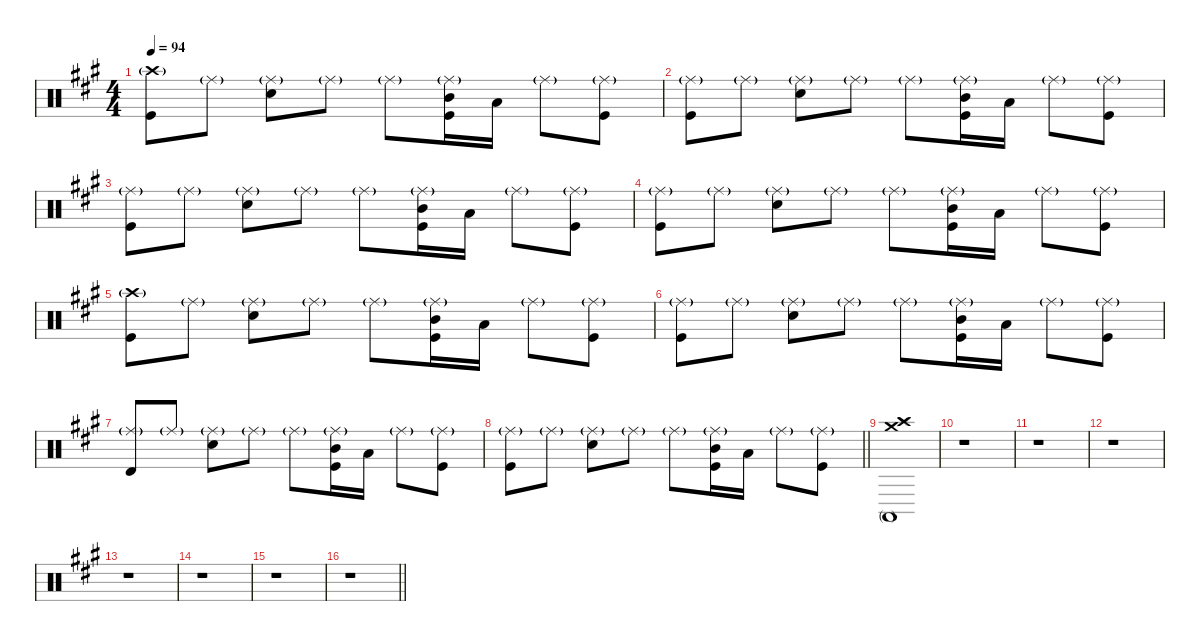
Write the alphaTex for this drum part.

\defaultSystemsLayout 4
\hideDynamics
\bracketExtendMode nobrackets
\singleTrackTrackNamePolicy hidden
\multiTrackTrackNamePolicy hidden
\firstSystemTrackNameMode fullname
\firstSystemTrackNameOrientation horizontal
\otherSystemsTrackNameOrientation horizontal
\track ("Percussion" "drm.") {defaultSystemsLayout 4 instrument percussion}
\staff {score}
\articulation defaults
\ts (4 4)
\tempo 94
\clef neutral
\ks a
("Crash high (hit)"{g acc forcenatural} "Kick (hit)"{acc forcenatural}).8{dy f beam Down} "Ride (middle)"{g acc forcenatural}.8{dy mf beam Down} ("Ride (middle)"{g acc forcenatural} "Snare (hit) 2"{acc forcenatural}).8{dy f beam Down} "Ride (middle)"{g acc forcenatural}.8{dy mf beam Down} "Ride (middle)"{g acc forcenatural}.8{beam Down} ("Ride (middle)"{g acc forcenatural} "Mid Tom (hit)"{acc forcenatural} "Kick (hit)"{acc forcenatural}).16{dy mp beam Down} "Low Tom (hit)"{acc forcenatural}.16{beam Down} "Ride (middle)"{g acc forcenatural}.8{dy mf beam Down} ("Ride (middle)"{g acc forcenatural} "Kick (hit)"{acc forcenatural}).8{dy f beam Down} |
("Ride (middle)"{g acc forcenatural} "Kick (hit)"{acc forcenatural}).8{beam Down} "Ride (middle)"{g acc forcenatural}.8{dy mf beam Down} ("Ride (middle)"{g acc forcenatural} "Snare (hit) 2"{acc forcenatural}).8{dy f beam Down} "Ride (middle)"{g acc forcenatural}.8{dy mf beam Down} "Ride (middle)"{g acc forcenatural}.8{beam Down} ("Ride (middle)"{g acc forcenatural} "Mid Tom (hit)"{acc forcenatural} "Kick (hit)"{acc forcenatural}).16{dy mp beam Down} "Low Tom (hit)"{acc forcenatural}.16{beam Down} "Ride (middle)"{g acc forcenatural}.8{dy mf beam Down} ("Ride (middle)"{g acc forcenatural} "Kick (hit)"{acc forcenatural}).8{dy f beam Down} |
("Ride (middle)"{g acc forcenatural} "Kick (hit)"{acc forcenatural}).8{beam Down} "Ride (middle)"{g acc forcenatural}.8{dy mf beam Down} ("Ride (middle)"{g acc forcenatural} "Snare (hit) 2"{acc forcenatural}).8{dy f beam Down} "Ride (middle)"{g acc forcenatural}.8{dy mf beam Down} "Ride (middle)"{g acc forcenatural}.8{beam Down} ("Ride (middle)"{g acc forcenatural} "Mid Tom (hit)"{acc forcenatural} "Kick (hit)"{acc forcenatural}).16{dy mp beam Down} "Low Tom (hit)"{acc forcenatural}.16{beam Down} "Ride (middle)"{g acc forcenatural}.8{dy mf beam Down} ("Ride (middle)"{g acc forcenatural} "Kick (hit)"{acc forcenatural}).8{dy f beam Down} |
("Ride (middle)"{g acc forcenatural} "Kick (hit)"{acc forcenatural}).8{beam Down} "Ride (middle)"{g acc forcenatural}.8{dy mf beam Down} ("Ride (middle)"{g acc forcenatural} "Snare (hit) 2"{acc forcenatural}).8{dy f beam Down} "Ride (middle)"{g acc forcenatural}.8{dy mf beam Down} "Ride (middle)"{g acc forcenatural}.8{beam Down} ("Ride (middle)"{g acc forcenatural} "Mid Tom (hit)"{acc forcenatural} "Kick (hit)"{acc forcenatural}).16{dy mp beam Down} "Low Tom (hit)"{acc forcenatural}.16{beam Down} "Ride (middle)"{g acc forcenatural}.8{dy mf beam Down} ("Ride (middle)"{g acc forcenatural} "Kick (hit)"{acc forcenatural}).8{dy f beam Down} |
("Crash high (hit)"{g acc forcenatural} "Kick (hit)"{acc forcenatural}).8{beam Down} "Ride (middle)"{g acc forcenatural}.8{dy mf beam Down} ("Ride (middle)"{g acc forcenatural} "Snare (hit) 2"{acc forcenatural}).8{dy f beam Down} "Ride (middle)"{g acc forcenatural}.8{dy mf beam Down} "Ride (middle)"{g acc forcenatural}.8{beam Down} ("Ride (middle)"{g acc forcenatural} "Mid Tom (hit)"{acc forcenatural} "Kick (hit)"{acc forcenatural}).16{dy mp beam Down} "Low Tom (hit)"{acc forcenatural}.16{beam Down} "Ride (middle)"{g acc forcenatural}.8{dy mf beam Down} ("Ride (middle)"{g acc forcenatural} "Kick (hit)"{acc forcenatural}).8{dy f beam Down} |
("Ride (middle)"{g acc forcenatural} "Kick (hit)"{acc forcenatural}).8{beam Down} "Ride (middle)"{g acc forcenatural}.8{dy mf beam Down} ("Ride (middle)"{g acc forcenatural} "Snare (hit) 2"{acc forcenatural}).8{dy f beam Down} "Ride (middle)"{g acc forcenatural}.8{dy mf beam Down} "Ride (middle)"{g acc forcenatural}.8{beam Down} ("Ride (middle)"{g acc forcenatural} "Mid Tom (hit)"{acc forcenatural} "Kick (hit)"{acc forcenatural}).16{dy mp beam Down} "Low Tom (hit)"{acc forcenatural}.16{beam Down} "Ride (middle)"{g acc forcenatural}.8{dy mf beam Down} ("Ride (middle)"{g acc forcenatural} "Kick (hit)"{acc forcenatural}).8{dy f beam Down} |
("Ride (middle)"{g acc forcenatural} "Timbale high (hit)"{acc forcenatural}).8{beam Up} "Ride (middle)"{g acc forcenatural}.8{dy mf beam Up} ("Ride (middle)"{g acc forcenatural} "Snare (hit) 2"{acc forcenatural}).8{dy f beam Down} "Ride (middle)"{g acc forcenatural}.8{dy mf beam Down} "Ride (middle)"{g acc forcenatural}.8{beam Down} ("Ride (middle)"{g acc forcenatural} "Mid Tom (hit)"{acc forcenatural} "Kick (hit)"{acc forcenatural}).16{dy mp beam Down} "Low Tom (hit)"{acc forcenatural}.16{beam Down} "Ride (middle)"{g acc forcenatural}.8{dy mf beam Down} ("Ride (middle)"{g acc forcenatural} "Kick (hit)"{acc forcenatural}).8{dy f beam Down} |
\barLineRight lightlight
("Ride (middle)"{g acc forcenatural} "Kick (hit)"{acc forcenatural}).8{beam Down} "Ride (middle)"{g acc forcenatural}.8{dy mf beam Down} ("Ride (middle)"{g acc forcenatural} "Snare (hit) 2"{acc forcenatural}).8{dy f beam Down} "Ride (middle)"{g acc forcenatural}.8{dy mf beam Down} "Ride (middle)"{g acc forcenatural}.8{beam Down} ("Ride (middle)"{g acc forcenatural} "Mid Tom (hit)"{acc forcenatural} "Kick (hit)"{acc forcenatural}).16{dy mp beam Down} "Low Tom (hit)"{acc forcenatural}.16{beam Down} "Ride (middle)"{g acc forcenatural}.8{dy mf beam Down} ("Ride (middle)"{g acc forcenatural} "Kick (hit)"{acc forcenatural}).8{dy f beam Down} |
("Crash medium (hit)"{acc forcenatural} "Splash (hit)"{acc forcenatural} "Conga high (mute)"{acc forcenatural} "Crash high (hit)"{acc forcenatural}).1{beam Up} |
r.1{beam Down} |
r.1{beam Down} |
r.1{beam Down} |
r.1{beam Down} |
r.1{beam Down} |
r.1{beam Down} |
\barLineRight lightlight
r.1{beam Down}
